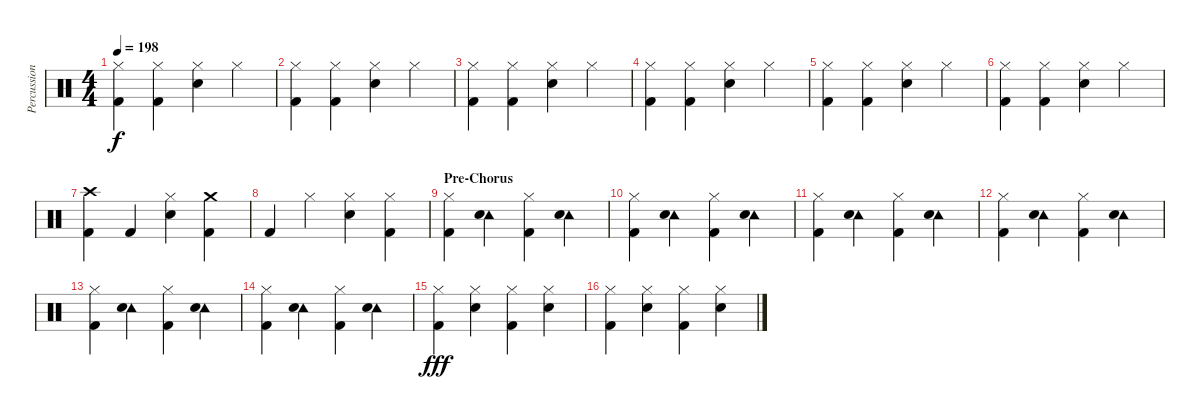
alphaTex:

\track ("Percussion" "Percussion") {instrument percussion}
\staff {score}
\articulation defaults
\ts (4 4)
\tempo 198
\clef neutral
\ks c
("Hi-Hat (closed)" "Kick (hit) 2").4{dy f} ("Hi-Hat (closed)" "Kick (hit) 2").4 ("Hi-Hat (closed)" "Electric Snare (hit)").4 "Hi-Hat (closed)".4 |
("Hi-Hat (closed)" "Kick (hit) 2").4 ("Hi-Hat (closed)" "Kick (hit) 2").4 ("Hi-Hat (closed)" "Electric Snare (hit)").4 "Hi-Hat (closed)".4 |
("Hi-Hat (closed)" "Kick (hit) 2").4 ("Hi-Hat (closed)" "Kick (hit) 2").4 ("Hi-Hat (closed)" "Electric Snare (hit)").4 "Hi-Hat (closed)".4 |
("Hi-Hat (closed)" "Kick (hit) 2").4 ("Hi-Hat (closed)" "Kick (hit) 2").4 ("Hi-Hat (closed)" "Electric Snare (hit)").4 "Hi-Hat (closed)".4 |
("Hi-Hat (closed)" "Kick (hit) 2").4 ("Hi-Hat (closed)" "Kick (hit) 2").4 ("Hi-Hat (closed)" "Electric Snare (hit)").4 "Hi-Hat (closed)".4 |
("Hi-Hat (closed)" "Kick (hit) 2").4 ("Hi-Hat (closed)" "Kick (hit) 2").4 ("Hi-Hat (closed)" "Electric Snare (hit)").4 "Hi-Hat (closed)".4 |
("Crash high (hit)" "Kick (hit) 2").4 "Kick (hit) 2".4 ("Hi-Hat (closed)" "Electric Snare (hit)").4 ("Crash medium (hit)" "Kick (hit) 2").4 |
"Kick (hit) 2".4 "Hi-Hat (closed)".4 ("Hi-Hat (closed)" "Electric Snare (hit)").4 ("Hi-Hat (closed)" "Kick (hit) 2").4 |
\section ("" "Pre-Chorus")
("Hi-Hat (closed)" "Kick (hit) 2").4 ("Tambourine (hit)" "Electric Snare (hit)").4 ("Hi-Hat (closed)" "Kick (hit) 2").4 ("Tambourine (hit)" "Electric Snare (hit)").4 |
("Hi-Hat (closed)" "Kick (hit) 2").4 ("Tambourine (hit)" "Electric Snare (hit)").4 ("Hi-Hat (closed)" "Kick (hit) 2").4 ("Tambourine (hit)" "Electric Snare (hit)").4 |
("Hi-Hat (closed)" "Kick (hit) 2").4 ("Tambourine (hit)" "Electric Snare (hit)").4 ("Hi-Hat (closed)" "Kick (hit) 2").4 ("Tambourine (hit)" "Electric Snare (hit)").4 |
("Hi-Hat (closed)" "Kick (hit) 2").4 ("Tambourine (hit)" "Electric Snare (hit)").4 ("Hi-Hat (closed)" "Kick (hit) 2").4 ("Tambourine (hit)" "Electric Snare (hit)").4 |
("Hi-Hat (closed)" "Kick (hit) 2").4 ("Tambourine (hit)" "Electric Snare (hit)").4 ("Hi-Hat (closed)" "Kick (hit) 2").4 ("Tambourine (hit)" "Electric Snare (hit)").4 |
("Hi-Hat (closed)" "Kick (hit) 2").4 ("Tambourine (hit)" "Electric Snare (hit)").4 ("Hi-Hat (closed)" "Kick (hit) 2").4 ("Tambourine (hit)" "Electric Snare (hit)").4 |
("Hi-Hat (closed)" "Kick (hit) 2").4{dy fff} ("Hi-Hat (closed)" "Electric Snare (hit)").4 ("Hi-Hat (closed)" "Kick (hit) 2").4 ("Hi-Hat (closed)" "Electric Snare (hit)").4 |
("Hi-Hat (closed)" "Kick (hit) 2").4 ("Hi-Hat (closed)" "Electric Snare (hit)").4 ("Hi-Hat (closed)" "Kick (hit) 2").4 ("Hi-Hat (closed)" "Electric Snare (hit)").4
